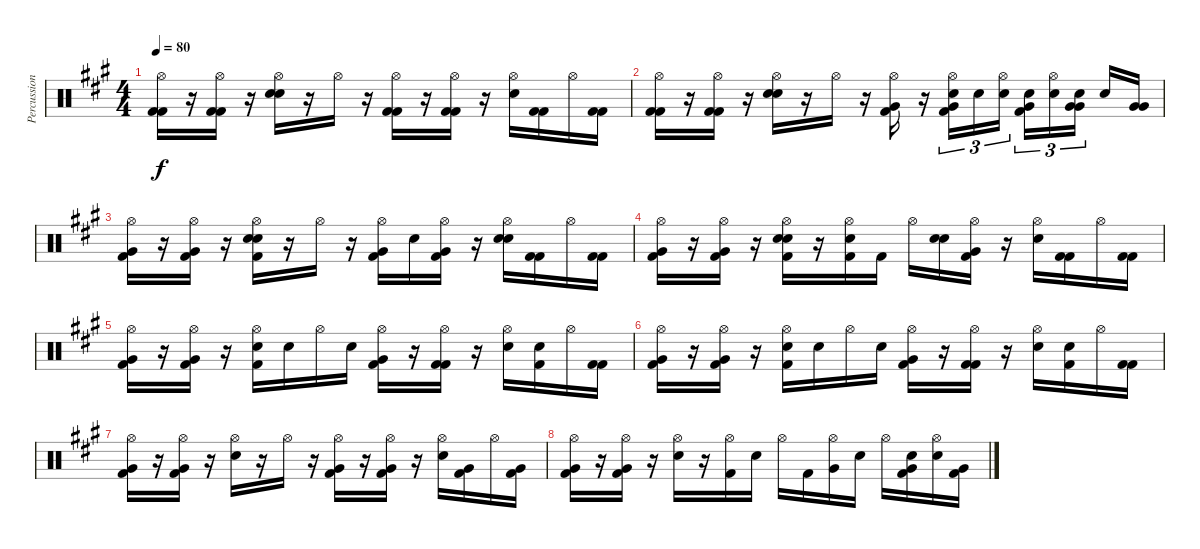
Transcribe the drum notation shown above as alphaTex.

\track ("Percussions" "Percussion") {instrument percussion}
\staff {score}
\articulation defaults
\ts (4 4)
\tempo 80
\clef neutral
\ks a
("Hi-Hat (open)" "Kick (hit) 2" "Kick (hit) 2").16{dy f} r.16 ("Hi-Hat (open)" "Kick (hit) 2" "Kick (hit) 2").16 r.16 ("Hi-Hat (open)" "Electric Snare (hit)" "Electric Snare (hit)").16 r.16 "Hi-Hat (open)".16 r.16 ("Hi-Hat (open)" "Kick (hit) 2" "Kick (hit) 2").16 r.16 ("Hi-Hat (open)" "Kick (hit) 2" "Kick (hit) 2").16 r.16 ("Hi-Hat (open)" "Electric Snare (hit)").16 ("Kick (hit) 2" "Kick (hit) 2").16 "Hi-Hat (open)".16 ("Kick (hit) 2" "Kick (hit) 2").16 |
("Hi-Hat (open)" "Kick (hit) 2" "Kick (hit) 2").16 r.16 ("Hi-Hat (open)" "Kick (hit) 2" "Kick (hit) 2").16 r.16 ("Hi-Hat (open)" "Electric Snare (hit)" "Electric Snare (hit)").16 r.16 "Hi-Hat (open)".16 r.16 ("Hi-Hat (open)" "Kick (hit) 2" "Very Low Tom (hit)").16 r.16 ("Hi-Hat (open)" "Electric Snare (hit)" "Kick (hit) 2" "Very Low Tom (hit)").16{tu (3 2)} "Electric Snare (hit)".16{tu (3 2)} ("Hi-Hat (open)" "Electric Snare (hit)").16{tu (3 2)} ("Electric Snare (hit)" "Kick (hit) 2" "Very Low Tom (hit)").16{tu (3 2)} ("Hi-Hat (open)" "Electric Snare (hit)").16{tu (3 2)} ("Electric Snare (hit)" "Very Low Tom (hit)" "Very Low Tom (hit)").16{tu (3 2)} "Electric Snare (hit)".16 ("Very Low Tom (hit)" "Very Low Tom (hit)").16 |
("Hi-Hat (open)" "Kick (hit) 2" "Very Low Tom (hit)").16 r.16 ("Hi-Hat (open)" "Kick (hit) 2" "Very Low Tom (hit)").16 r.16 ("Hi-Hat (open)" "Electric Snare (hit)" "Electric Snare (hit)" "Kick (hit) 2").16 r.16 "Hi-Hat (open)".16 r.16 ("Hi-Hat (open)" "Kick (hit) 2" "Very Low Tom (hit)").16 "Electric Snare (hit)".16 ("Hi-Hat (open)" "Kick (hit) 2" "Very Low Tom (hit)").16 r.16 ("Hi-Hat (open)" "Electric Snare (hit)" "Electric Snare (hit)").16 ("Kick (hit) 2" "Kick (hit) 2").16 "Hi-Hat (open)".16 ("Kick (hit) 2" "Kick (hit) 2").16 |
("Hi-Hat (open)" "Kick (hit) 2" "Very Low Tom (hit)").16 r.16 ("Hi-Hat (open)" "Kick (hit) 2" "Very Low Tom (hit)").16 r.16 ("Hi-Hat (open)" "Electric Snare (hit)" "Electric Snare (hit)" "Kick (hit) 2").16 r.16 ("Hi-Hat (open)" "Electric Snare (hit)" "Kick (hit) 2").16 "Kick (hit) 2".16 "Hi-Hat (open)".16 ("Electric Snare (hit)" "Electric Snare (hit)").16 ("Hi-Hat (open)" "Kick (hit) 2" "Very Low Tom (hit)").16 r.16 ("Hi-Hat (open)" "Electric Snare (hit)").16 ("Kick (hit) 2" "Kick (hit) 2").16 "Hi-Hat (open)".16 ("Kick (hit) 2" "Kick (hit) 2").16 |
("Hi-Hat (open)" "Kick (hit) 2" "Very Low Tom (hit)").16 r.16 ("Hi-Hat (open)" "Kick (hit) 2" "Very Low Tom (hit)").16 r.16 ("Hi-Hat (open)" "Electric Snare (hit)" "Kick (hit) 2").16 "Electric Snare (hit)".16 "Hi-Hat (open)".16 "Electric Snare (hit)".16 ("Hi-Hat (open)" "Kick (hit) 2" "Very Low Tom (hit)").16 r.16 ("Hi-Hat (open)" "Kick (hit) 2" "Kick (hit) 2").16 r.16 ("Hi-Hat (open)" "Electric Snare (hit)").16 ("Electric Snare (hit)" "Kick (hit) 2").16 "Hi-Hat (open)".16 ("Kick (hit) 2" "Kick (hit) 2").16 |
("Hi-Hat (open)" "Kick (hit) 2" "Very Low Tom (hit)").16 r.16 ("Hi-Hat (open)" "Kick (hit) 2" "Very Low Tom (hit)").16 r.16 ("Hi-Hat (open)" "Electric Snare (hit)" "Kick (hit) 2").16 "Electric Snare (hit)".16 "Hi-Hat (open)".16 "Electric Snare (hit)".16 ("Hi-Hat (open)" "Kick (hit) 2" "Very Low Tom (hit)").16 r.16 ("Hi-Hat (open)" "Kick (hit) 2" "Kick (hit) 2").16 r.16 ("Hi-Hat (open)" "Electric Snare (hit)").16 ("Electric Snare (hit)" "Kick (hit) 2").16 "Hi-Hat (open)".16 ("Kick (hit) 2" "Kick (hit) 2").16 |
("Hi-Hat (open)" "Kick (hit) 2" "Very Low Tom (hit)").16 r.16 ("Hi-Hat (open)" "Kick (hit) 2" "Very Low Tom (hit)").16 r.16 ("Hi-Hat (open)" "Electric Snare (hit)").16 r.16 "Hi-Hat (open)".16 r.16 ("Hi-Hat (open)" "Kick (hit) 2" "Very Low Tom (hit)").16 r.16 ("Hi-Hat (open)" "Kick (hit) 2" "Very Low Tom (hit)").16 r.16 ("Hi-Hat (open)" "Electric Snare (hit)").16 ("Kick (hit) 2" "Very Low Tom (hit)").16 "Hi-Hat (open)".16 ("Kick (hit) 2" "Very Low Tom (hit)").16 |
("Hi-Hat (open)" "Kick (hit) 2" "Very Low Tom (hit)").16 r.16 ("Hi-Hat (open)" "Kick (hit) 2" "Very Low Tom (hit)").16 r.16 ("Hi-Hat (open)" "Electric Snare (hit)").16 r.16 ("Hi-Hat (open)" "Kick (hit) 2").16 "Electric Snare (hit)".16 "Hi-Hat (open)".16 "Kick (hit) 2".16 ("Hi-Hat (open)" "Very Low Tom (hit)").16 "Electric Snare (hit)".16 "Hi-Hat (open)".16 ("Electric Snare (hit)" "Kick (hit) 2" "Very Low Tom (hit)").16 ("Hi-Hat (open)" "Electric Snare (hit)").16 ("Kick (hit) 2" "Very Low Tom (hit)").16
